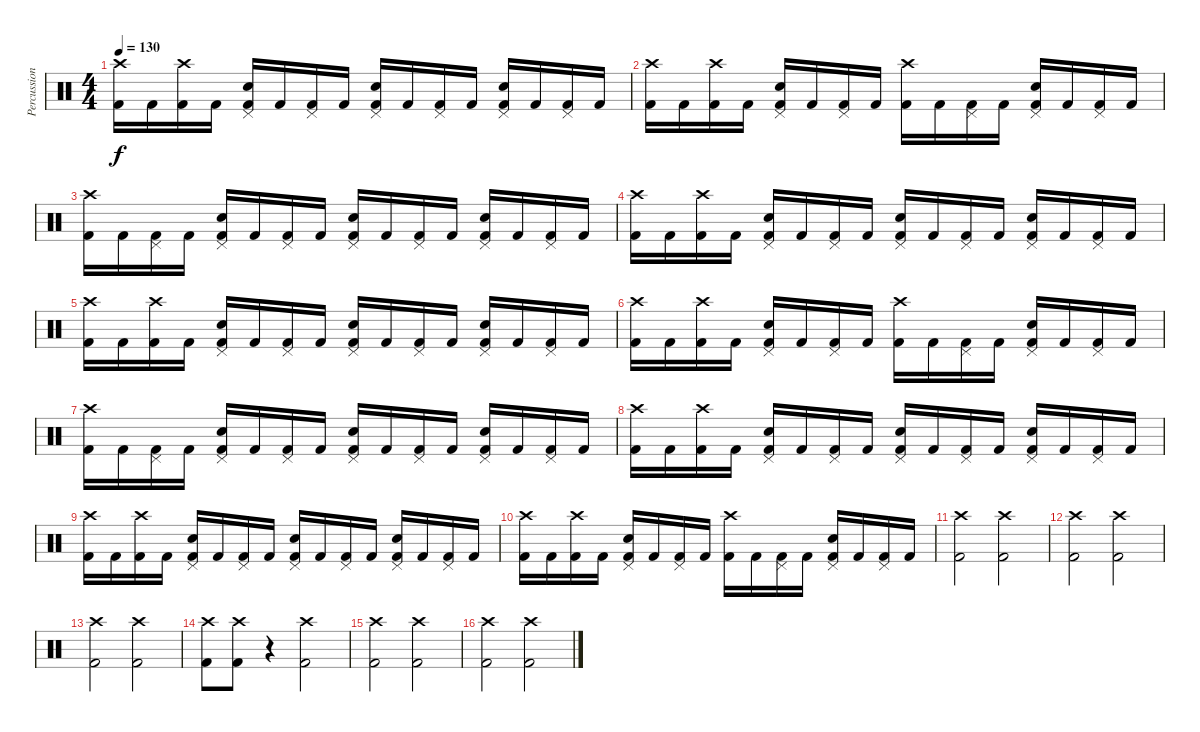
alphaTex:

\track ("Percussion" "Percussion") {instrument percussion}
\staff {score}
\articulation defaults
\ts (4 4)
\tempo 130
\clef neutral
\ks c
("Crash high (hit)" "Kick (hit) 2").16{dy f} "Kick (hit) 2".16 ("Crash high (hit)" "Kick (hit) 2").16 "Kick (hit) 2".16 ("Pedal Hi-Hat (hit)" "Snare (hit) 2" "Kick (hit) 2").16 "Kick (hit) 2".16 ("Pedal Hi-Hat (hit)" "Kick (hit) 2").16 "Kick (hit) 2".16 ("Pedal Hi-Hat (hit)" "Snare (hit) 2" "Kick (hit) 2").16 "Kick (hit) 2".16 ("Pedal Hi-Hat (hit)" "Kick (hit) 2").16 "Kick (hit) 2".16 ("Pedal Hi-Hat (hit)" "Snare (hit) 2" "Kick (hit) 2").16 "Kick (hit) 2".16 ("Pedal Hi-Hat (hit)" "Kick (hit) 2").16 "Kick (hit) 2".16 |
("Crash high (hit)" "Kick (hit) 2").16 "Kick (hit) 2".16 ("Crash high (hit)" "Kick (hit) 2").16 "Kick (hit) 2".16 ("Pedal Hi-Hat (hit)" "Snare (hit) 2" "Kick (hit) 2").16 "Kick (hit) 2".16 ("Pedal Hi-Hat (hit)" "Kick (hit) 2").16 "Kick (hit) 2".16 ("Crash high (hit)" "Kick (hit) 2").16 "Kick (hit) 2".16 ("Pedal Hi-Hat (hit)" "Kick (hit) 2").16 "Kick (hit) 2".16 ("Pedal Hi-Hat (hit)" "Snare (hit) 2" "Kick (hit) 2").16 "Kick (hit) 2".16 ("Pedal Hi-Hat (hit)" "Kick (hit) 2").16 "Kick (hit) 2".16 |
("Crash high (hit)" "Kick (hit) 2").16 "Kick (hit) 2".16 ("Pedal Hi-Hat (hit)" "Kick (hit) 2").16 "Kick (hit) 2".16 ("Pedal Hi-Hat (hit)" "Snare (hit) 2" "Kick (hit) 2").16 "Kick (hit) 2".16 ("Pedal Hi-Hat (hit)" "Kick (hit) 2").16 "Kick (hit) 2".16 ("Pedal Hi-Hat (hit)" "Snare (hit) 2" "Kick (hit) 2").16 "Kick (hit) 2".16 ("Pedal Hi-Hat (hit)" "Kick (hit) 2").16 "Kick (hit) 2".16 ("Pedal Hi-Hat (hit)" "Snare (hit) 2" "Kick (hit) 2").16 "Kick (hit) 2".16 ("Pedal Hi-Hat (hit)" "Kick (hit) 2").16 "Kick (hit) 2".16 |
("Crash high (hit)" "Kick (hit) 2").16 "Kick (hit) 2".16 ("Crash high (hit)" "Kick (hit) 2").16 "Kick (hit) 2".16 ("Pedal Hi-Hat (hit)" "Snare (hit) 2" "Kick (hit) 2").16 "Kick (hit) 2".16 ("Pedal Hi-Hat (hit)" "Kick (hit) 2").16 "Kick (hit) 2".16 ("Pedal Hi-Hat (hit)" "Snare (hit) 2" "Kick (hit) 2").16 "Kick (hit) 2".16 ("Pedal Hi-Hat (hit)" "Kick (hit) 2").16 "Kick (hit) 2".16 ("Pedal Hi-Hat (hit)" "Snare (hit) 2" "Kick (hit) 2").16 "Kick (hit) 2".16 ("Pedal Hi-Hat (hit)" "Kick (hit) 2").16 "Kick (hit) 2".16 |
("Crash high (hit)" "Kick (hit) 2").16 "Kick (hit) 2".16 ("Crash high (hit)" "Kick (hit) 2").16 "Kick (hit) 2".16 ("Pedal Hi-Hat (hit)" "Snare (hit) 2" "Kick (hit) 2").16 "Kick (hit) 2".16 ("Pedal Hi-Hat (hit)" "Kick (hit) 2").16 "Kick (hit) 2".16 ("Pedal Hi-Hat (hit)" "Snare (hit) 2" "Kick (hit) 2").16 "Kick (hit) 2".16 ("Pedal Hi-Hat (hit)" "Kick (hit) 2").16 "Kick (hit) 2".16 ("Pedal Hi-Hat (hit)" "Snare (hit) 2" "Kick (hit) 2").16 "Kick (hit) 2".16 ("Pedal Hi-Hat (hit)" "Kick (hit) 2").16 "Kick (hit) 2".16 |
("Crash high (hit)" "Kick (hit) 2").16 "Kick (hit) 2".16 ("Crash high (hit)" "Kick (hit) 2").16 "Kick (hit) 2".16 ("Pedal Hi-Hat (hit)" "Snare (hit) 2" "Kick (hit) 2").16 "Kick (hit) 2".16 ("Pedal Hi-Hat (hit)" "Kick (hit) 2").16 "Kick (hit) 2".16 ("Crash high (hit)" "Kick (hit) 2").16 "Kick (hit) 2".16 ("Pedal Hi-Hat (hit)" "Kick (hit) 2").16 "Kick (hit) 2".16 ("Pedal Hi-Hat (hit)" "Snare (hit) 2" "Kick (hit) 2").16 "Kick (hit) 2".16 ("Pedal Hi-Hat (hit)" "Kick (hit) 2").16 "Kick (hit) 2".16 |
("Crash high (hit)" "Kick (hit) 2").16 "Kick (hit) 2".16 ("Pedal Hi-Hat (hit)" "Kick (hit) 2").16 "Kick (hit) 2".16 ("Pedal Hi-Hat (hit)" "Snare (hit) 2" "Kick (hit) 2").16 "Kick (hit) 2".16 ("Pedal Hi-Hat (hit)" "Kick (hit) 2").16 "Kick (hit) 2".16 ("Pedal Hi-Hat (hit)" "Snare (hit) 2" "Kick (hit) 2").16 "Kick (hit) 2".16 ("Pedal Hi-Hat (hit)" "Kick (hit) 2").16 "Kick (hit) 2".16 ("Pedal Hi-Hat (hit)" "Snare (hit) 2" "Kick (hit) 2").16 "Kick (hit) 2".16 ("Pedal Hi-Hat (hit)" "Kick (hit) 2").16 "Kick (hit) 2".16 |
("Crash high (hit)" "Kick (hit) 2").16 "Kick (hit) 2".16 ("Crash high (hit)" "Kick (hit) 2").16 "Kick (hit) 2".16 ("Pedal Hi-Hat (hit)" "Snare (hit) 2" "Kick (hit) 2").16 "Kick (hit) 2".16 ("Pedal Hi-Hat (hit)" "Kick (hit) 2").16 "Kick (hit) 2".16 ("Pedal Hi-Hat (hit)" "Snare (hit) 2" "Kick (hit) 2").16 "Kick (hit) 2".16 ("Pedal Hi-Hat (hit)" "Kick (hit) 2").16 "Kick (hit) 2".16 ("Pedal Hi-Hat (hit)" "Snare (hit) 2" "Kick (hit) 2").16 "Kick (hit) 2".16 ("Pedal Hi-Hat (hit)" "Kick (hit) 2").16 "Kick (hit) 2".16 |
("Crash high (hit)" "Kick (hit) 2").16 "Kick (hit) 2".16 ("Crash high (hit)" "Kick (hit) 2").16 "Kick (hit) 2".16 ("Pedal Hi-Hat (hit)" "Snare (hit) 2" "Kick (hit) 2").16 "Kick (hit) 2".16 ("Pedal Hi-Hat (hit)" "Kick (hit) 2").16 "Kick (hit) 2".16 ("Pedal Hi-Hat (hit)" "Snare (hit) 2" "Kick (hit) 2").16 "Kick (hit) 2".16 ("Pedal Hi-Hat (hit)" "Kick (hit) 2").16 "Kick (hit) 2".16 ("Pedal Hi-Hat (hit)" "Snare (hit) 2" "Kick (hit) 2").16 "Kick (hit) 2".16 ("Pedal Hi-Hat (hit)" "Kick (hit) 2").16 "Kick (hit) 2".16 |
("Crash high (hit)" "Kick (hit) 2").16 "Kick (hit) 2".16 ("Crash high (hit)" "Kick (hit) 2").16 "Kick (hit) 2".16 ("Pedal Hi-Hat (hit)" "Snare (hit) 2" "Kick (hit) 2").16 "Kick (hit) 2".16 ("Pedal Hi-Hat (hit)" "Kick (hit) 2").16 "Kick (hit) 2".16 ("Crash high (hit)" "Kick (hit) 2").16 "Kick (hit) 2".16 ("Pedal Hi-Hat (hit)" "Kick (hit) 2").16 "Kick (hit) 2".16 ("Pedal Hi-Hat (hit)" "Snare (hit) 2" "Kick (hit) 2").16 "Kick (hit) 2".16 ("Pedal Hi-Hat (hit)" "Kick (hit) 2").16 "Kick (hit) 2".16 |
("Crash high (hit)" "Kick (hit) 2").2 ("Crash high (hit)" "Kick (hit) 2").2 |
("Crash high (hit)" "Kick (hit) 2").2 ("Crash high (hit)" "Kick (hit) 2").2 |
("Crash high (hit)" "Kick (hit) 2").2 ("Crash high (hit)" "Kick (hit) 2").2 |
("Crash high (hit)" "Kick (hit) 2").8 ("Crash high (hit)" "Kick (hit) 2").8 r.4 ("Crash high (hit)" "Kick (hit) 2").2 |
("Crash high (hit)" "Kick (hit) 2").2 ("Crash high (hit)" "Kick (hit) 2").2 |
("Crash high (hit)" "Kick (hit) 2").2 ("Crash high (hit)" "Kick (hit) 2").2
